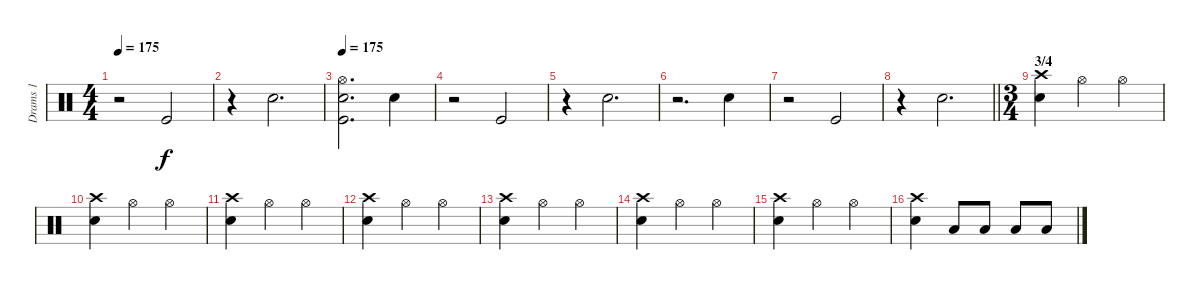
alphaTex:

\track ("Drams 1" "Drams 1") {instrument percussion}
\staff {score}
\articulation defaults
\ts (4 4)
\tempo 175
\clef neutral
\ks c
r.2{dy f} "Kick (hit)".2 |
r.4 "Snare (hit) 2".2{d} |
\tempo 175
("Kick (hit)" "Snare (hit) 2" "Hi-Hat (open)").2{d} "Snare (hit) 2".4 |
r.2 "Kick (hit)".2 |
r.4 "Snare (hit) 2".2{d} |
r.2{d} "Snare (hit) 2".4 |
r.2 "Kick (hit)".2 |
\barLineRight lightlight
r.4 "Snare (hit) 2".2{d} |
\ts (3 4)
\section ("" "3/4")
("Snare (hit) 2" "Crash high (hit)").4 "Hi-Hat (open)".4 "Hi-Hat (open)".4 |
("Snare (hit) 2" "Crash high (hit)").4 "Hi-Hat (open)".4 "Hi-Hat (open)".4 |
("Snare (hit) 2" "Crash high (hit)").4 "Hi-Hat (open)".4 "Hi-Hat (open)".4 |
("Snare (hit) 2" "Crash high (hit)").4 "Hi-Hat (open)".4 "Hi-Hat (open)".4 |
("Snare (hit) 2" "Crash high (hit)").4 "Hi-Hat (open)".4 "Hi-Hat (open)".4 |
("Snare (hit) 2" "Crash high (hit)").4 "Hi-Hat (open)".4 "Hi-Hat (open)".4 |
("Snare (hit) 2" "Crash high (hit)").4 "Hi-Hat (open)".4 "Hi-Hat (open)".4 |
("Snare (hit) 2" "Crash high (hit)").4 "Low Tom (hit)".8 "Low Tom (hit)".8 "Low Tom (hit)".8 "Low Tom (hit)".8
